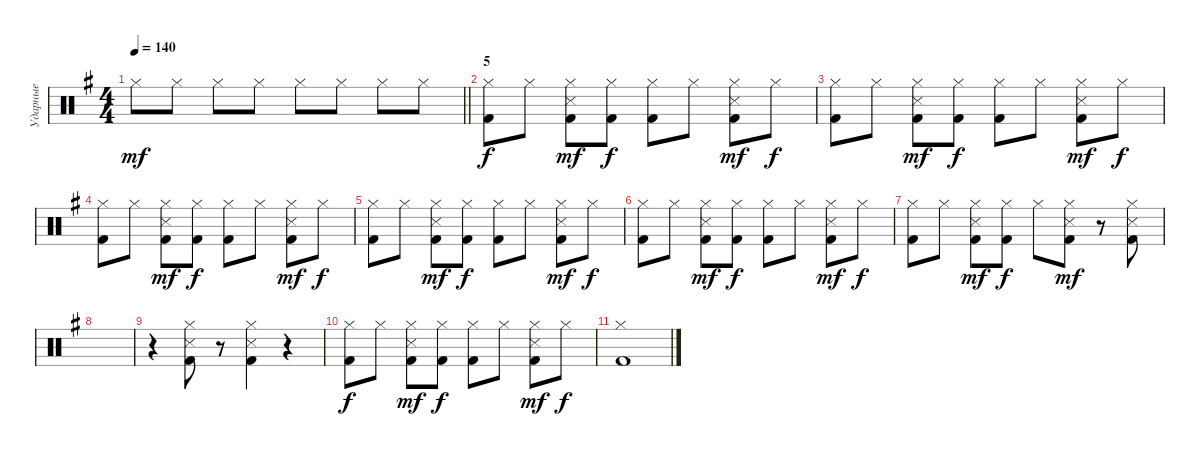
\track ("Ударные" "Ударные") {instrument percussion}
\staff {score}
\articulation defaults
\ts (4 4)
\tempo 140
\clef neutral
\barLineRight lightlight
\ks g "Hi-Hat (closed)".8{dy mf} "Hi-Hat (closed)".8 "Hi-Hat (closed)".8 "Hi-Hat (closed)".8 "Hi-Hat (closed)".8 "Hi-Hat (closed)".8 "Hi-Hat (closed)".8 "Hi-Hat (closed)".8
|
\section ("" "5")
("Kick (hit) 2" "Hi-Hat (closed)").8{dy f} "Hi-Hat (closed)".8 ("Kick (hit) 2" "Metronome (hit)" "Hi-Hat (closed)").8{dy mf} ("Kick (hit) 2" "Hi-Hat (closed)").8{dy f} ("Kick (hit) 2" "Hi-Hat (closed)").8 "Hi-Hat (closed)".8 ("Kick (hit) 2" "Metronome (hit)" "Hi-Hat (closed)").8{dy mf} "Hi-Hat (closed)".8{dy f} |
("Kick (hit) 2" "Hi-Hat (closed)").8 "Hi-Hat (closed)".8 ("Kick (hit) 2" "Metronome (hit)" "Hi-Hat (closed)").8{dy mf} ("Kick (hit) 2" "Hi-Hat (closed)").8{dy f} ("Kick (hit) 2" "Hi-Hat (closed)").8 "Hi-Hat (closed)".8 ("Kick (hit) 2" "Metronome (hit)" "Hi-Hat (closed)").8{dy mf} "Hi-Hat (closed)".8{dy f} |
("Kick (hit) 2" "Hi-Hat (closed)").8 "Hi-Hat (closed)".8 ("Kick (hit) 2" "Metronome (hit)" "Hi-Hat (closed)").8{dy mf} ("Kick (hit) 2" "Hi-Hat (closed)").8{dy f} ("Kick (hit) 2" "Hi-Hat (closed)").8 "Hi-Hat (closed)".8 ("Kick (hit) 2" "Metronome (hit)" "Hi-Hat (closed)").8{dy mf} "Hi-Hat (closed)".8{dy f} |
("Kick (hit) 2" "Hi-Hat (closed)").8 "Hi-Hat (closed)".8 ("Kick (hit) 2" "Metronome (hit)" "Hi-Hat (closed)").8{dy mf} ("Kick (hit) 2" "Hi-Hat (closed)").8{dy f} ("Kick (hit) 2" "Hi-Hat (closed)").8 "Hi-Hat (closed)".8 ("Kick (hit) 2" "Metronome (hit)" "Hi-Hat (closed)").8{dy mf} "Hi-Hat (closed)".8{dy f} |
("Kick (hit) 2" "Hi-Hat (closed)").8 "Hi-Hat (closed)".8 ("Kick (hit) 2" "Metronome (hit)" "Hi-Hat (closed)").8{dy mf} ("Kick (hit) 2" "Hi-Hat (closed)").8{dy f} ("Kick (hit) 2" "Hi-Hat (closed)").8 "Hi-Hat (closed)".8 ("Kick (hit) 2" "Metronome (hit)" "Hi-Hat (closed)").8{dy mf} "Hi-Hat (closed)".8{dy f} |
("Kick (hit) 2" "Hi-Hat (closed)").8 "Hi-Hat (closed)".8 ("Kick (hit) 2" "Metronome (hit)" "Hi-Hat (closed)").8{dy mf} ("Kick (hit) 2" "Hi-Hat (closed)").8{dy f} "Hi-Hat (closed)".8 ("Kick (hit) 2" "Metronome (hit)" "Hi-Hat (closed)").8{dy mf} r.8 ("Kick (hit) 2" "Metronome (hit)" "Hi-Hat (closed)").8 |
|
r.4 ("Kick (hit) 2" "Metronome (hit)" "Hi-Hat (closed)").8 r.8 ("Kick (hit) 2" "Metronome (hit)" "Hi-Hat (closed)").4 r.4 |
("Kick (hit) 2" "Hi-Hat (closed)").8{dy f} "Hi-Hat (closed)".8 ("Kick (hit) 2" "Metronome (hit)" "Hi-Hat (closed)").8{dy mf} ("Kick (hit) 2" "Hi-Hat (closed)").8{dy f} ("Kick (hit) 2" "Hi-Hat (closed)").8 "Hi-Hat (closed)".8 ("Kick (hit) 2" "Metronome (hit)" "Hi-Hat (closed)").8{dy mf} "Hi-Hat (closed)".8{dy f} |
("Kick (hit) 2" "Hi-Hat (closed)").1
